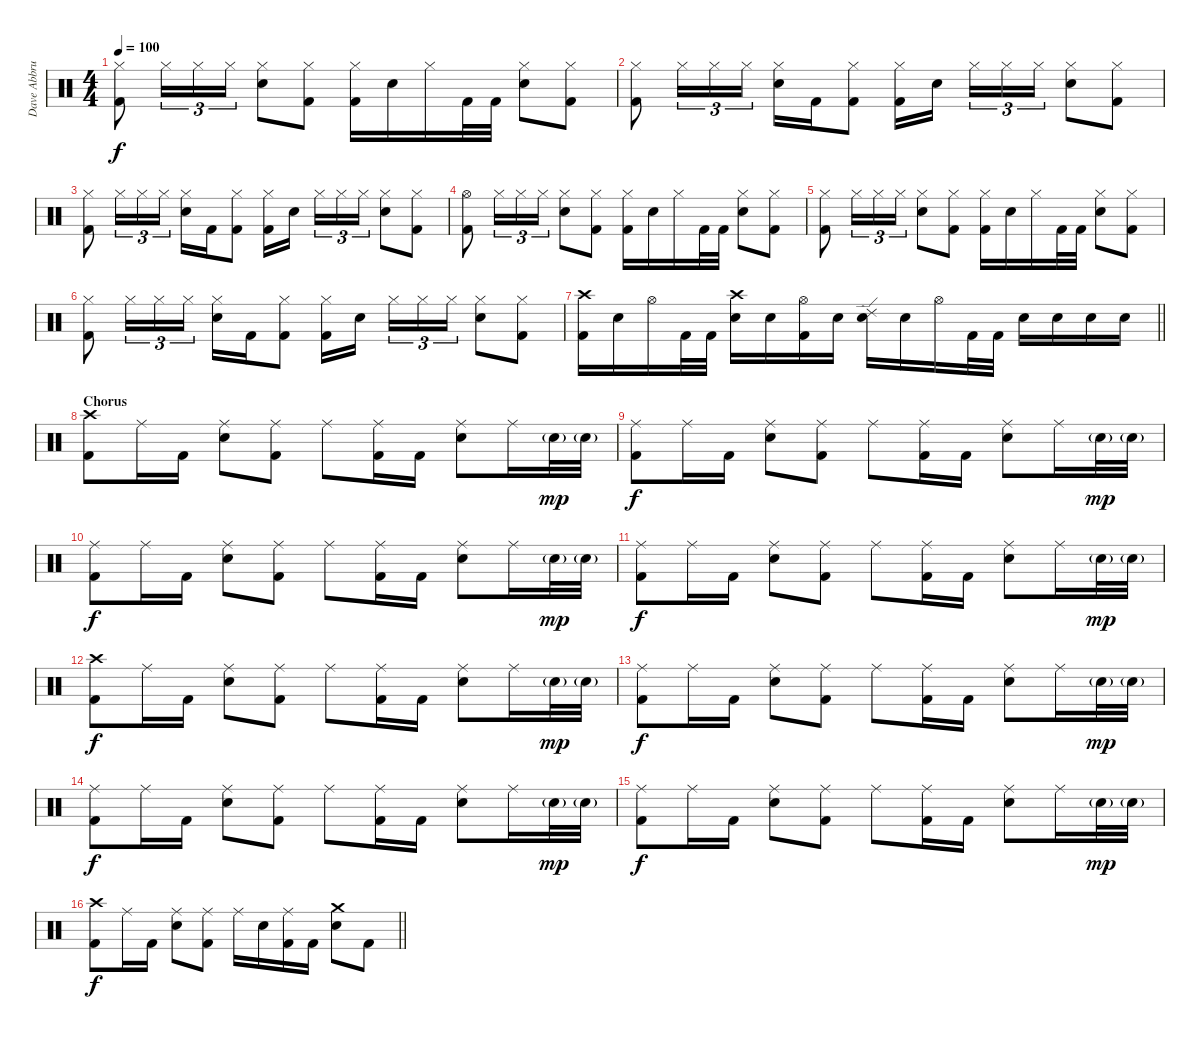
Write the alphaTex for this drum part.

\track ("Dave Abbruzzese" "Dave Abbru") {instrument percussion}
\staff {score}
\articulation defaults
\ts (4 4)
\tempo 100
\clef neutral
\ks c
("Hi-Hat (closed)" "Kick (hit) 2").8{dy f} "Hi-Hat (closed)".16{tu (3 2)} "Hi-Hat (closed)".16{tu (3 2)} "Hi-Hat (closed)".16{tu (3 2)} ("Hi-Hat (closed)" "Electric Snare (hit)").8 ("Hi-Hat (closed)" "Kick (hit) 2").8 ("Hi-Hat (closed)" "Kick (hit) 2").16 "Electric Snare (hit)".16 "Hi-Hat (closed)".16 "Kick (hit) 2".32 "Kick (hit) 2".32 ("Hi-Hat (closed)" "Electric Snare (hit)").8 ("Hi-Hat (closed)" "Kick (hit) 2").8 |
("Hi-Hat (closed)" "Kick (hit) 2").8 "Hi-Hat (closed)".16{tu (3 2)} "Hi-Hat (closed)".16{tu (3 2)} "Hi-Hat (closed)".16{tu (3 2)} ("Hi-Hat (closed)" "Electric Snare (hit)").16 "Kick (hit) 2".16 ("Hi-Hat (closed)" "Kick (hit) 2").8 ("Hi-Hat (closed)" "Kick (hit) 2").16 "Electric Snare (hit)".16{beam splitsecondary} "Hi-Hat (closed)".16{tu (3 2)} "Hi-Hat (closed)".16{tu (3 2)} "Hi-Hat (closed)".16{tu (3 2)} ("Hi-Hat (closed)" "Electric Snare (hit)").8 ("Hi-Hat (closed)" "Kick (hit) 2").8 |
("Hi-Hat (closed)" "Kick (hit) 2").8 "Hi-Hat (closed)".16{tu (3 2)} "Hi-Hat (closed)".16{tu (3 2)} "Hi-Hat (closed)".16{tu (3 2)} ("Hi-Hat (closed)" "Electric Snare (hit)").16 "Kick (hit) 2".16 ("Hi-Hat (closed)" "Kick (hit) 2").8 ("Hi-Hat (closed)" "Kick (hit) 2").16 "Electric Snare (hit)".16{beam splitsecondary} "Hi-Hat (closed)".16{tu (3 2)} "Hi-Hat (closed)".16{tu (3 2)} "Hi-Hat (closed)".16{tu (3 2)} ("Hi-Hat (closed)" "Electric Snare (hit)").8 ("Hi-Hat (closed)" "Kick (hit) 2").8 |
("Hi-Hat (open)" "Kick (hit) 2").8 "Hi-Hat (closed)".16{tu (3 2)} "Hi-Hat (closed)".16{tu (3 2)} "Hi-Hat (closed)".16{tu (3 2)} ("Hi-Hat (closed)" "Electric Snare (hit)").8 ("Hi-Hat (closed)" "Kick (hit) 2").8 ("Hi-Hat (closed)" "Kick (hit) 2").16 "Electric Snare (hit)".16 "Hi-Hat (closed)".16 "Kick (hit) 2".32 "Kick (hit) 2".32 ("Hi-Hat (closed)" "Electric Snare (hit)").8 ("Hi-Hat (closed)" "Kick (hit) 2").8 |
("Hi-Hat (closed)" "Kick (hit) 2").8 "Hi-Hat (closed)".16{tu (3 2)} "Hi-Hat (closed)".16{tu (3 2)} "Hi-Hat (closed)".16{tu (3 2)} ("Hi-Hat (closed)" "Electric Snare (hit)").8 ("Hi-Hat (closed)" "Kick (hit) 2").8 ("Hi-Hat (closed)" "Kick (hit) 2").16 "Electric Snare (hit)".16 "Hi-Hat (closed)".16 "Kick (hit) 2".32 "Kick (hit) 2".32 ("Hi-Hat (closed)" "Electric Snare (hit)").8 ("Hi-Hat (closed)" "Kick (hit) 2").8 |
("Hi-Hat (closed)" "Kick (hit) 2").8 "Hi-Hat (closed)".16{tu (3 2)} "Hi-Hat (closed)".16{tu (3 2)} "Hi-Hat (closed)".16{tu (3 2)} ("Hi-Hat (closed)" "Electric Snare (hit)").16 "Kick (hit) 2".16 ("Hi-Hat (closed)" "Kick (hit) 2").8 ("Hi-Hat (closed)" "Kick (hit) 2").16 "Electric Snare (hit)".16{beam splitsecondary} "Hi-Hat (closed)".16{tu (3 2)} "Hi-Hat (closed)".16{tu (3 2)} "Hi-Hat (closed)".16{tu (3 2)} ("Hi-Hat (closed)" "Electric Snare (hit)").8 ("Hi-Hat (closed)" "Kick (hit) 2").8 |
\barLineRight lightlight
("Crash high (hit)" "Kick (hit) 2").16 "Electric Snare (hit)".16 "Hi-Hat (open)".16 "Kick (hit) 2".32 "Kick (hit) 2".32 ("Crash high (hit)" "Electric Snare (hit)").16 "Electric Snare (hit)".16 ("Hi-Hat (open)" "Kick (hit) 2").16 "Electric Snare (hit)".16 ("Ride (edge) 2" "Electric Snare (hit)").16 "Electric Snare (hit)".16 "Hi-Hat (open)".16 "Kick (hit) 2".32 "Kick (hit) 2".32 "Electric Snare (hit)".16 "Electric Snare (hit)".16 "Electric Snare (hit)".16 "Electric Snare (hit)".16 |
\section ("" "Chorus")
("Crash high (hit)" "Kick (hit) 2").8 "Ride (middle)".16 "Kick (hit) 2".16 ("Ride (middle)" "Electric Snare (hit)").8 ("Ride (middle)" "Kick (hit) 2").8 "Ride (middle)".8 ("Ride (middle)" "Kick (hit) 2").16 "Kick (hit) 2".16 ("Ride (middle)" "Electric Snare (hit)").8 "Ride (middle)".16 "Electric Snare (hit)"{g}.32{dy mp} "Electric Snare (hit)"{g}.32 |
("Ride (middle)" "Kick (hit) 2").8{dy f} "Ride (middle)".16 "Kick (hit) 2".16 ("Ride (middle)" "Electric Snare (hit)").8 ("Ride (middle)" "Kick (hit) 2").8 "Ride (middle)".8 ("Ride (middle)" "Kick (hit) 2").16 "Kick (hit) 2".16 ("Ride (middle)" "Electric Snare (hit)").8 "Ride (middle)".16 "Electric Snare (hit)"{g}.32{dy mp} "Electric Snare (hit)"{g}.32 |
("Ride (middle)" "Kick (hit) 2").8{dy f} "Ride (middle)".16 "Kick (hit) 2".16 ("Ride (middle)" "Electric Snare (hit)").8 ("Ride (middle)" "Kick (hit) 2").8 "Ride (middle)".8 ("Ride (middle)" "Kick (hit) 2").16 "Kick (hit) 2".16 ("Ride (middle)" "Electric Snare (hit)").8 "Ride (middle)".16 "Electric Snare (hit)"{g}.32{dy mp} "Electric Snare (hit)"{g}.32 |
("Ride (middle)" "Kick (hit) 2").8{dy f} "Ride (middle)".16 "Kick (hit) 2".16 ("Ride (middle)" "Electric Snare (hit)").8 ("Ride (middle)" "Kick (hit) 2").8 "Ride (middle)".8 ("Ride (middle)" "Kick (hit) 2").16 "Kick (hit) 2".16 ("Ride (middle)" "Electric Snare (hit)").8 "Ride (middle)".16 "Electric Snare (hit)"{g}.32{dy mp} "Electric Snare (hit)"{g}.32 |
("Crash high (hit)" "Kick (hit) 2").8{dy f} "Ride (middle)".16 "Kick (hit) 2".16 ("Ride (middle)" "Electric Snare (hit)").8 ("Ride (middle)" "Kick (hit) 2").8 "Ride (middle)".8 ("Ride (middle)" "Kick (hit) 2").16 "Kick (hit) 2".16 ("Ride (middle)" "Electric Snare (hit)").8 "Ride (middle)".16 "Electric Snare (hit)"{g}.32{dy mp} "Electric Snare (hit)"{g}.32 |
("Ride (middle)" "Kick (hit) 2").8{dy f} "Ride (middle)".16 "Kick (hit) 2".16 ("Ride (middle)" "Electric Snare (hit)").8 ("Ride (middle)" "Kick (hit) 2").8 "Ride (middle)".8 ("Ride (middle)" "Kick (hit) 2").16 "Kick (hit) 2".16 ("Ride (middle)" "Electric Snare (hit)").8 "Ride (middle)".16 "Electric Snare (hit)"{g}.32{dy mp} "Electric Snare (hit)"{g}.32 |
("Ride (middle)" "Kick (hit) 2").8{dy f} "Ride (middle)".16 "Kick (hit) 2".16 ("Ride (middle)" "Electric Snare (hit)").8 ("Ride (middle)" "Kick (hit) 2").8 "Ride (middle)".8 ("Ride (middle)" "Kick (hit) 2").16 "Kick (hit) 2".16 ("Ride (middle)" "Electric Snare (hit)").8 "Ride (middle)".16 "Electric Snare (hit)"{g}.32{dy mp} "Electric Snare (hit)"{g}.32 |
("Ride (middle)" "Kick (hit) 2").8{dy f} "Ride (middle)".16 "Kick (hit) 2".16 ("Ride (middle)" "Electric Snare (hit)").8 ("Ride (middle)" "Kick (hit) 2").8 "Ride (middle)".8 ("Ride (middle)" "Kick (hit) 2").16 "Kick (hit) 2".16 ("Ride (middle)" "Electric Snare (hit)").8 "Ride (middle)".16 "Electric Snare (hit)"{g}.32{dy mp} "Electric Snare (hit)"{g}.32 |
\barLineRight lightlight
("Crash high (hit)" "Kick (hit) 2").8{dy f} "Ride (middle)".16 "Kick (hit) 2".16 ("Ride (middle)" "Electric Snare (hit)").8 ("Ride (middle)" "Kick (hit) 2").8 "Ride (middle)".16 "Electric Snare (hit)".16 ("Ride (middle)" "Kick (hit) 2").16 "Kick (hit) 2".16 ("Crash medium (hit)" "Electric Snare (hit)").8 "Kick (hit) 2".8
